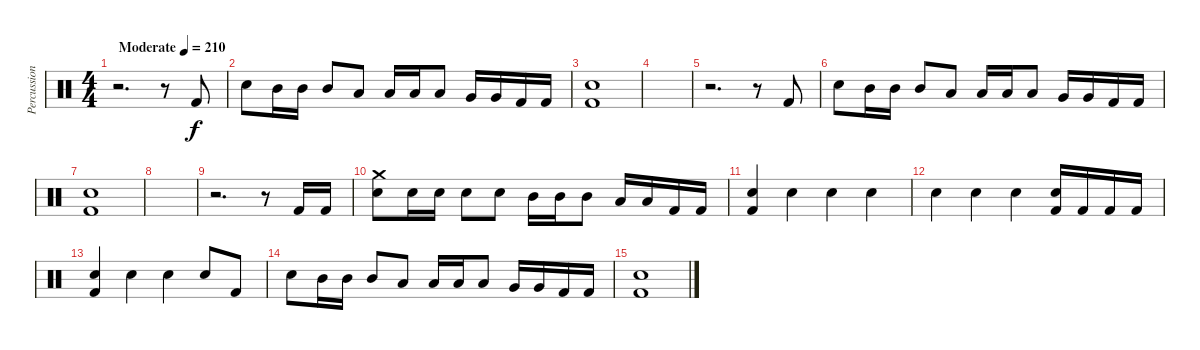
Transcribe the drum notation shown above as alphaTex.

\track ("Percussion" "Percussion") {instrument percussion}
\staff {score}
\articulation defaults
\ts (4 4)
\tempo (210 "Moderate")
\clef neutral
\ks c
r.2{d dy f} r.8 "Kick (hit) 2".8 |
"Snare (hit) 2".8 "Mid Tom (hit)".16 "Mid Tom (hit)".16 "Mid Tom (hit)".8 "Low Tom (hit)".8 "Low Tom (hit)".16 "Low Tom (hit)".16 "Low Tom (hit)".8 "Very Low Tom (hit)".16 "Very Low Tom (hit)".16 "Kick (hit) 2".16 "Kick (hit) 2".16 |
("Snare (hit) 2" "Kick (hit) 2").1 |
|
r.2{d} r.8 "Kick (hit) 2".8 |
"Snare (hit) 2".8 "Mid Tom (hit)".16 "Mid Tom (hit)".16 "Mid Tom (hit)".8 "Low Tom (hit)".8 "Low Tom (hit)".16 "Low Tom (hit)".16 "Low Tom (hit)".8 "Very Low Tom (hit)".16 "Very Low Tom (hit)".16 "Kick (hit) 2".16 "Kick (hit) 2".16 |
("Snare (hit) 2" "Kick (hit) 2").1 |
|
r.2{d} r.8 "Kick (hit) 2".16 "Kick (hit) 2".16 |
("Crash medium (hit)" "Snare (hit) 2").8 "Snare (hit) 2".16 "Snare (hit) 2".16 "Snare (hit) 2".8 "Snare (hit) 2".8 "Mid Tom (hit)".16 "Mid Tom (hit)".16 "Mid Tom (hit)".8 "Low Tom (hit)".16 "Low Tom (hit)".16 "Kick (hit) 2".16 "Kick (hit) 2".16 |
("Snare (hit) 2" "Kick (hit) 2").4 "Snare (hit) 2".4 "Snare (hit) 2".4 "Snare (hit) 2".4 |
"Snare (hit) 2".4 "Snare (hit) 2".4 "Snare (hit) 2".4 ("Snare (hit) 2" "Kick (hit) 2").16 "Kick (hit) 2".16 "Kick (hit) 2".16 "Kick (hit) 2".16 |
("Snare (hit) 2" "Kick (hit) 2").4 "Snare (hit) 2".4 "Snare (hit) 2".4 "Snare (hit) 2".8 "Kick (hit) 2".8 |
"Snare (hit) 2".8 "Mid Tom (hit)".16 "Mid Tom (hit)".16 "Mid Tom (hit)".8 "Low Tom (hit)".8 "Low Tom (hit)".16 "Low Tom (hit)".16 "Low Tom (hit)".8 "Very Low Tom (hit)".16 "Very Low Tom (hit)".16 "Kick (hit) 2".16 "Kick (hit) 2".16 |
("Snare (hit) 2" "Kick (hit) 2").1
